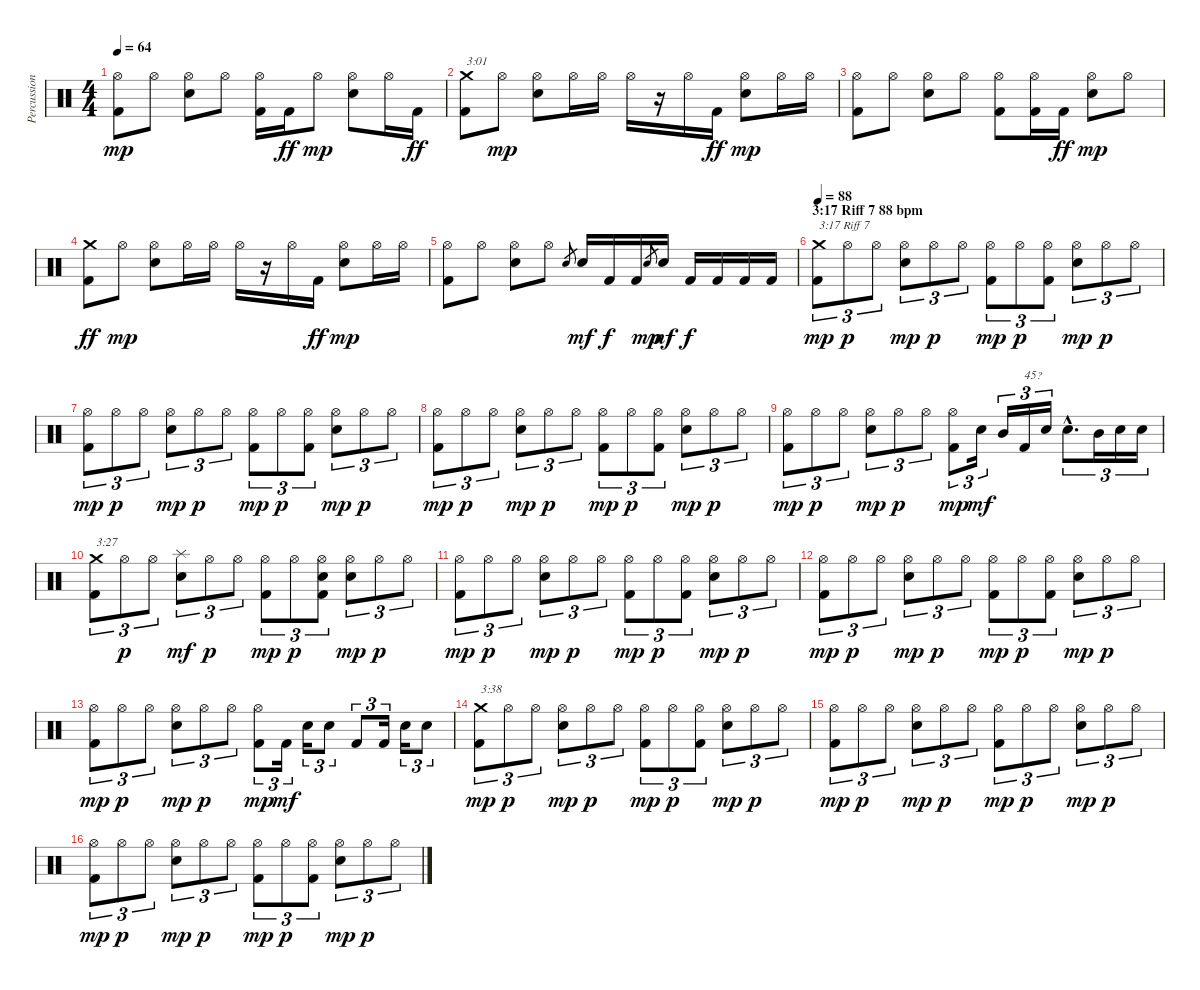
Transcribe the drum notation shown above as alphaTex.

\track ("Percussion" "Percussion") {instrument percussion}
\staff {score}
\articulation defaults
\ts (4 4)
\tempo 64
\clef neutral
\ks c
("Kick (hit) 2" "Hi-Hat (open)").8{dy mp} "Hi-Hat (open)".8 ("Electric Snare (hit)" "Hi-Hat (open)").8 "Hi-Hat (open)".8 ("Kick (hit) 2" "Hi-Hat (open)").16 "Kick (hit) 2".16{dy ff} "Hi-Hat (open)".8{dy mp} ("Electric Snare (hit)" "Hi-Hat (open)").8 "Hi-Hat (open)".16 "Kick (hit) 2".16{dy ff} |
("Kick (hit) 2" "Crash medium (hit)").8{txt "3:01"} "Hi-Hat (open)".8{dy mp} ("Electric Snare (hit)" "Hi-Hat (open)").8 "Hi-Hat (open)".16 "Hi-Hat (open)".16 "Hi-Hat (open)".16 r.16 "Hi-Hat (open)".16 "Kick (hit) 2".16{dy ff} ("Electric Snare (hit)" "Hi-Hat (open)").8{dy mp} "Hi-Hat (open)".16 "Hi-Hat (open)".16 |
("Kick (hit) 2" "Hi-Hat (open)").8 "Hi-Hat (open)".8 ("Electric Snare (hit)" "Hi-Hat (open)").8 "Hi-Hat (open)".8 ("Kick (hit) 2" "Hi-Hat (open)").8 ("Kick (hit) 2" "Hi-Hat (open)").16 "Kick (hit) 2".16{dy ff} ("Electric Snare (hit)" "Hi-Hat (open)").8{dy mp} "Hi-Hat (open)".8 |
("Kick (hit) 2" "Crash medium (hit)").8{dy ff} "Hi-Hat (open)".8{dy mp} ("Electric Snare (hit)" "Hi-Hat (open)").8 "Hi-Hat (open)".16 "Hi-Hat (open)".16 "Hi-Hat (open)".16 r.16 "Hi-Hat (open)".16 "Kick (hit) 2".16{dy ff} ("Electric Snare (hit)" "Hi-Hat (open)").8{dy mp} "Hi-Hat (open)".16 "Hi-Hat (open)".16 |
("Kick (hit) 2" "Hi-Hat (open)").8 "Hi-Hat (open)".8 ("Electric Snare (hit)" "Hi-Hat (open)").8 "Hi-Hat (open)".8 "Electric Snare (hit)".8{gr} "Electric Snare (hit)".16{dy mf} "Kick (hit) 2".16{dy f} "Kick (hit) 2".16 "Electric Snare (hit)".8{gr dy mp} "Electric Snare (hit)".16{dy mf} "Kick (hit) 2".16{dy f} "Kick (hit) 2".16 "Kick (hit) 2".16 "Kick (hit) 2".16 |
\section ("" "3:17 Riff 7 88 bpm")
\tempo 88
("Kick (hit) 2" "Crash medium (hit)").8{tu (3 2) txt "3:17 Riff 7" dy mp} "Hi-Hat (open)".8{tu (3 2) dy p} "Hi-Hat (open)".8{tu (3 2)} ("Electric Snare (hit)" "Hi-Hat (open)").8{tu (3 2) dy mp} "Hi-Hat (open)".8{tu (3 2) dy p} "Hi-Hat (open)".8{tu (3 2)} ("Kick (hit) 2" "Hi-Hat (open)").8{tu (3 2) dy mp} "Hi-Hat (open)".8{tu (3 2) dy p} ("Kick (hit) 2" "Hi-Hat (open)").8{tu (3 2)} ("Electric Snare (hit)" "Hi-Hat (open)").8{tu (3 2) dy mp} "Hi-Hat (open)".8{tu (3 2) dy p} "Hi-Hat (open)".8{tu (3 2)} |
("Kick (hit) 2" "Hi-Hat (open)").8{tu (3 2) dy mp} "Hi-Hat (open)".8{tu (3 2) dy p} "Hi-Hat (open)".8{tu (3 2)} ("Electric Snare (hit)" "Hi-Hat (open)").8{tu (3 2) dy mp} "Hi-Hat (open)".8{tu (3 2) dy p} "Hi-Hat (open)".8{tu (3 2)} ("Kick (hit) 2" "Hi-Hat (open)").8{tu (3 2) dy mp} "Hi-Hat (open)".8{tu (3 2) dy p} ("Kick (hit) 2" "Hi-Hat (open)").8{tu (3 2)} ("Electric Snare (hit)" "Hi-Hat (open)").8{tu (3 2) dy mp} "Hi-Hat (open)".8{tu (3 2) dy p} "Hi-Hat (open)".8{tu (3 2)} |
("Kick (hit) 2" "Hi-Hat (open)").8{tu (3 2) dy mp} "Hi-Hat (open)".8{tu (3 2) dy p} "Hi-Hat (open)".8{tu (3 2)} ("Electric Snare (hit)" "Hi-Hat (open)").8{tu (3 2) dy mp} "Hi-Hat (open)".8{tu (3 2) dy p} "Hi-Hat (open)".8{tu (3 2)} ("Kick (hit) 2" "Hi-Hat (open)").8{tu (3 2) dy mp} "Hi-Hat (open)".8{tu (3 2) dy p} ("Kick (hit) 2" "Hi-Hat (open)").8{tu (3 2)} ("Electric Snare (hit)" "Hi-Hat (open)").8{tu (3 2) dy mp} "Hi-Hat (open)".8{tu (3 2) dy p} "Hi-Hat (open)".8{tu (3 2)} |
("Kick (hit) 2" "Hi-Hat (open)").8{tu (3 2) dy mp} "Hi-Hat (open)".8{tu (3 2) dy p} "Hi-Hat (open)".8{tu (3 2)} ("Electric Snare (hit)" "Hi-Hat (open)").8{tu (3 2) dy mp} "Hi-Hat (open)".8{tu (3 2) dy p} "Hi-Hat (open)".8{tu (3 2)} ("Kick (hit) 2" "Hi-Hat (open)").8{tu (3 2) dy mp} "Electric Snare (hit)".16{tu (3 2) dy mf} "Mid Tom (hit)".16{tu (3 2)} "Kick (hit) 2".16{tu (3 2) txt "45?"} "Electric Snare (hit)".16{tu (3 2)} "Electric Snare (hit)"{hac}.8{d tu (3 2)} "Mid Tom (hit)".16{tu (3 2)} "Electric Snare (hit)".16{tu (3 2)} "Electric Snare (hit)".16{tu (3 2)} |
("Kick (hit) 2" "Crash medium (hit)").8{tu (3 2) txt "3:27"} "Hi-Hat (open)".8{tu (3 2) dy p} "Hi-Hat (open)".8{tu (3 2)} ("Electric Snare (hit)" "Splash (hit)").8{tu (3 2) dy mf} "Hi-Hat (open)".8{tu (3 2) dy p} "Hi-Hat (open)".8{tu (3 2)} ("Kick (hit) 2" "Hi-Hat (open)").8{tu (3 2) dy mp} "Hi-Hat (open)".8{tu (3 2) dy p} ("Kick (hit) 2" "Hi-Hat (open)" "Snare (hit)").8{tu (3 2)} ("Electric Snare (hit)" "Hi-Hat (open)").8{tu (3 2) dy mp} "Hi-Hat (open)".8{tu (3 2) dy p} "Hi-Hat (open)".8{tu (3 2)} |
("Kick (hit) 2" "Hi-Hat (open)").8{tu (3 2) dy mp} "Hi-Hat (open)".8{tu (3 2) dy p} "Hi-Hat (open)".8{tu (3 2)} ("Electric Snare (hit)" "Hi-Hat (open)").8{tu (3 2) dy mp} "Hi-Hat (open)".8{tu (3 2) dy p} "Hi-Hat (open)".8{tu (3 2)} ("Kick (hit) 2" "Hi-Hat (open)").8{tu (3 2) dy mp} "Hi-Hat (open)".8{tu (3 2) dy p} ("Kick (hit) 2" "Hi-Hat (open)").8{tu (3 2)} ("Electric Snare (hit)" "Hi-Hat (open)").8{tu (3 2) dy mp} "Hi-Hat (open)".8{tu (3 2) dy p} "Hi-Hat (open)".8{tu (3 2)} |
("Kick (hit) 2" "Hi-Hat (open)").8{tu (3 2) dy mp} "Hi-Hat (open)".8{tu (3 2) dy p} "Hi-Hat (open)".8{tu (3 2)} ("Electric Snare (hit)" "Hi-Hat (open)").8{tu (3 2) dy mp} "Hi-Hat (open)".8{tu (3 2) dy p} "Hi-Hat (open)".8{tu (3 2)} ("Kick (hit) 2" "Hi-Hat (open)").8{tu (3 2) dy mp} "Hi-Hat (open)".8{tu (3 2) dy p} ("Kick (hit) 2" "Hi-Hat (open)").8{tu (3 2)} ("Electric Snare (hit)" "Hi-Hat (open)").8{tu (3 2) dy mp} "Hi-Hat (open)".8{tu (3 2) dy p} "Hi-Hat (open)".8{tu (3 2)} |
("Kick (hit) 2" "Hi-Hat (open)").8{tu (3 2) dy mp} "Hi-Hat (open)".8{tu (3 2) dy p} "Hi-Hat (open)".8{tu (3 2)} ("Electric Snare (hit)" "Hi-Hat (open)").8{tu (3 2) dy mp} "Hi-Hat (open)".8{tu (3 2) dy p} "Hi-Hat (open)".8{tu (3 2)} ("Kick (hit) 2" "Hi-Hat (open)").8{tu (3 2) dy mp} "Kick (hit) 2".16{tu (3 2) dy mf} "Electric Snare (hit)".16{tu (3 2)} "Electric Snare (hit)".8{tu (3 2)} "Kick (hit) 2".8{tu (3 2)} "Kick (hit) 2".16{tu (3 2)} "Electric Snare (hit)".16{tu (3 2)} "Electric Snare (hit)".8{tu (3 2)} |
("Kick (hit) 2" "Crash medium (hit)").8{tu (3 2) txt "3:38" dy mp} "Hi-Hat (open)".8{tu (3 2) dy p} "Hi-Hat (open)".8{tu (3 2)} ("Electric Snare (hit)" "Hi-Hat (open)").8{tu (3 2) dy mp} "Hi-Hat (open)".8{tu (3 2) dy p} "Hi-Hat (open)".8{tu (3 2)} ("Kick (hit) 2" "Hi-Hat (open)").8{tu (3 2) dy mp} "Hi-Hat (open)".8{tu (3 2) dy p} ("Kick (hit) 2" "Hi-Hat (open)").8{tu (3 2)} ("Electric Snare (hit)" "Hi-Hat (open)").8{tu (3 2) dy mp} "Hi-Hat (open)".8{tu (3 2) dy p} "Hi-Hat (open)".8{tu (3 2)} |
("Kick (hit) 2" "Hi-Hat (open)").8{tu (3 2) dy mp} "Hi-Hat (open)".8{tu (3 2) dy p} "Hi-Hat (open)".8{tu (3 2)} ("Electric Snare (hit)" "Hi-Hat (open)").8{tu (3 2) dy mp} "Hi-Hat (open)".8{tu (3 2) dy p} "Hi-Hat (open)".8{tu (3 2)} ("Kick (hit) 2" "Hi-Hat (open)").8{tu (3 2) dy mp} "Hi-Hat (open)".8{tu (3 2) dy p} "Hi-Hat (open)".8{tu (3 2)} ("Electric Snare (hit)" "Hi-Hat (open)").8{tu (3 2) dy mp} "Hi-Hat (open)".8{tu (3 2) dy p} "Hi-Hat (open)".8{tu (3 2)} |
("Kick (hit) 2" "Hi-Hat (open)").8{tu (3 2) dy mp} "Hi-Hat (open)".8{tu (3 2) dy p} "Hi-Hat (open)".8{tu (3 2)} ("Electric Snare (hit)" "Hi-Hat (open)").8{tu (3 2) dy mp} "Hi-Hat (open)".8{tu (3 2) dy p} "Hi-Hat (open)".8{tu (3 2)} ("Kick (hit) 2" "Hi-Hat (open)").8{tu (3 2) dy mp} "Hi-Hat (open)".8{tu (3 2) dy p} ("Kick (hit) 2" "Hi-Hat (open)").8{tu (3 2)} ("Electric Snare (hit)" "Hi-Hat (open)").8{tu (3 2) dy mp} "Hi-Hat (open)".8{tu (3 2) dy p} "Hi-Hat (open)".8{tu (3 2)}
